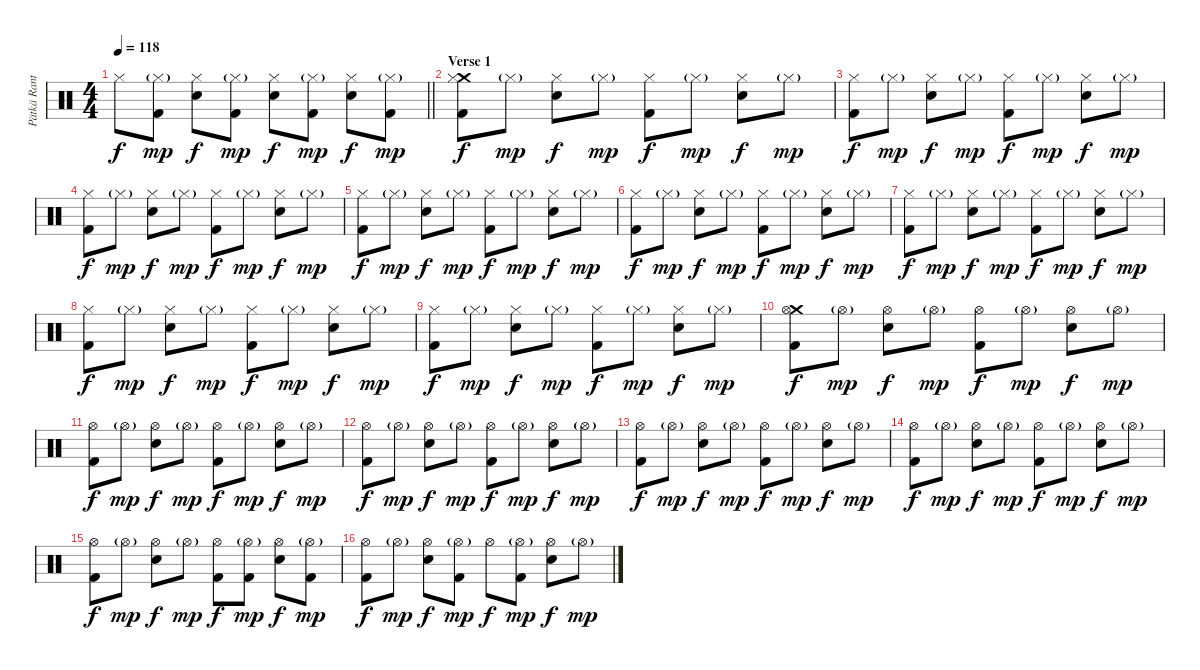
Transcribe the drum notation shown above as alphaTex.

\track ("Pätkä Rantala (Drums)" "Pätkä Rant") {instrument percussion}
\staff {score}
\articulation defaults
\ts (4 4)
\tempo 118
\clef neutral
\barLineRight lightlight
\ks c "Hi-Hat (closed)".8{dy f}
("Hi-Hat (closed)"{g} "Kick (hit) 2").8{dy mp} ("Hi-Hat (closed)" "Snare (hit) 2").8{dy f} ("Hi-Hat (closed)"{g} "Kick (hit) 2").8{dy mp} ("Hi-Hat (closed)" "Snare (hit) 2").8{dy f} ("Hi-Hat (closed)"{g} "Kick (hit) 2").8{dy mp} ("Hi-Hat (closed)" "Snare (hit) 2").8{dy f} ("Hi-Hat (closed)"{g} "Kick (hit) 2").8{dy mp} |
\section ("" "Verse 1")
("Crash medium (hit)" "Hi-Hat (closed)" "Kick (hit) 2").8{dy f} "Hi-Hat (closed)"{g}.8{dy mp} ("Hi-Hat (closed)" "Snare (hit) 2").8{dy f} "Hi-Hat (closed)"{g}.8{dy mp} ("Hi-Hat (closed)" "Kick (hit) 2").8{dy f} "Hi-Hat (closed)"{g}.8{dy mp} ("Hi-Hat (closed)" "Snare (hit) 2").8{dy f} "Hi-Hat (closed)"{g}.8{dy mp} |
("Hi-Hat (closed)" "Kick (hit) 2").8{dy f} "Hi-Hat (closed)"{g}.8{dy mp} ("Hi-Hat (closed)" "Snare (hit) 2").8{dy f} "Hi-Hat (closed)"{g}.8{dy mp} ("Hi-Hat (closed)" "Kick (hit) 2").8{dy f} "Hi-Hat (closed)"{g}.8{dy mp} ("Hi-Hat (closed)" "Snare (hit) 2").8{dy f} "Hi-Hat (closed)"{g}.8{dy mp} |
("Hi-Hat (closed)" "Kick (hit) 2").8{dy f} "Hi-Hat (closed)"{g}.8{dy mp} ("Hi-Hat (closed)" "Snare (hit) 2").8{dy f} "Hi-Hat (closed)"{g}.8{dy mp} ("Hi-Hat (closed)" "Kick (hit) 2").8{dy f} "Hi-Hat (closed)"{g}.8{dy mp} ("Hi-Hat (closed)" "Snare (hit) 2").8{dy f} "Hi-Hat (closed)"{g}.8{dy mp} |
("Hi-Hat (closed)" "Kick (hit) 2").8{dy f} "Hi-Hat (closed)"{g}.8{dy mp} ("Hi-Hat (closed)" "Snare (hit) 2").8{dy f} "Hi-Hat (closed)"{g}.8{dy mp} ("Hi-Hat (closed)" "Kick (hit) 2").8{dy f} "Hi-Hat (closed)"{g}.8{dy mp} ("Hi-Hat (closed)" "Snare (hit) 2").8{dy f} "Hi-Hat (closed)"{g}.8{dy mp} |
("Hi-Hat (closed)" "Kick (hit) 2").8{dy f} "Hi-Hat (closed)"{g}.8{dy mp} ("Hi-Hat (closed)" "Snare (hit) 2").8{dy f} "Hi-Hat (closed)"{g}.8{dy mp} ("Hi-Hat (closed)" "Kick (hit) 2").8{dy f} "Hi-Hat (closed)"{g}.8{dy mp} ("Hi-Hat (closed)" "Snare (hit) 2").8{dy f} "Hi-Hat (closed)"{g}.8{dy mp} |
("Hi-Hat (closed)" "Kick (hit) 2").8{dy f} "Hi-Hat (closed)"{g}.8{dy mp} ("Hi-Hat (closed)" "Snare (hit) 2").8{dy f} "Hi-Hat (closed)"{g}.8{dy mp} ("Hi-Hat (closed)" "Kick (hit) 2").8{dy f} "Hi-Hat (closed)"{g}.8{dy mp} ("Hi-Hat (closed)" "Snare (hit) 2").8{dy f} "Hi-Hat (closed)"{g}.8{dy mp} |
("Hi-Hat (closed)" "Kick (hit) 2").8{dy f} "Hi-Hat (closed)"{g}.8{dy mp} ("Hi-Hat (closed)" "Snare (hit) 2").8{dy f} "Hi-Hat (closed)"{g}.8{dy mp} ("Hi-Hat (closed)" "Kick (hit) 2").8{dy f} "Hi-Hat (closed)"{g}.8{dy mp} ("Hi-Hat (closed)" "Snare (hit) 2").8{dy f} "Hi-Hat (closed)"{g}.8{dy mp} |
("Hi-Hat (closed)" "Kick (hit) 2").8{dy f} "Hi-Hat (closed)"{g}.8{dy mp} ("Hi-Hat (closed)" "Snare (hit) 2").8{dy f} "Hi-Hat (closed)"{g}.8{dy mp} ("Hi-Hat (closed)" "Kick (hit) 2").8{dy f} "Hi-Hat (closed)"{g}.8{dy mp} ("Hi-Hat (closed)" "Snare (hit) 2").8{dy f} "Hi-Hat (closed)"{g}.8{dy mp} |
("Crash medium (hit)" "Hi-Hat (open)" "Kick (hit) 2").8{dy f} "Hi-Hat (open)"{g}.8{dy mp} ("Hi-Hat (open)" "Snare (hit) 2").8{dy f} "Hi-Hat (open)"{g}.8{dy mp} ("Hi-Hat (open)" "Kick (hit) 2").8{dy f} "Hi-Hat (open)"{g}.8{dy mp} ("Hi-Hat (open)" "Snare (hit) 2").8{dy f} "Hi-Hat (open)"{g}.8{dy mp} |
("Hi-Hat (open)" "Kick (hit) 2").8{dy f} "Hi-Hat (open)"{g}.8{dy mp} ("Hi-Hat (open)" "Snare (hit) 2").8{dy f} "Hi-Hat (open)"{g}.8{dy mp} ("Hi-Hat (open)" "Kick (hit) 2").8{dy f} "Hi-Hat (open)"{g}.8{dy mp} ("Hi-Hat (open)" "Snare (hit) 2").8{dy f} "Hi-Hat (open)"{g}.8{dy mp} |
("Hi-Hat (open)" "Kick (hit) 2").8{dy f} "Hi-Hat (open)"{g}.8{dy mp} ("Hi-Hat (open)" "Snare (hit) 2").8{dy f} "Hi-Hat (open)"{g}.8{dy mp} ("Hi-Hat (open)" "Kick (hit) 2").8{dy f} "Hi-Hat (open)"{g}.8{dy mp} ("Hi-Hat (open)" "Snare (hit) 2").8{dy f} "Hi-Hat (open)"{g}.8{dy mp} |
("Hi-Hat (open)" "Kick (hit) 2").8{dy f} "Hi-Hat (open)"{g}.8{dy mp} ("Hi-Hat (open)" "Snare (hit) 2").8{dy f} "Hi-Hat (open)"{g}.8{dy mp} ("Hi-Hat (open)" "Kick (hit) 2").8{dy f} "Hi-Hat (open)"{g}.8{dy mp} ("Hi-Hat (open)" "Snare (hit) 2").8{dy f} "Hi-Hat (open)"{g}.8{dy mp} |
("Hi-Hat (open)" "Kick (hit) 2").8{dy f} "Hi-Hat (open)"{g}.8{dy mp} ("Hi-Hat (open)" "Snare (hit) 2").8{dy f} "Hi-Hat (open)"{g}.8{dy mp} ("Hi-Hat (open)" "Kick (hit) 2").8{dy f} "Hi-Hat (open)"{g}.8{dy mp} ("Hi-Hat (open)" "Snare (hit) 2").8{dy f} "Hi-Hat (open)"{g}.8{dy mp} |
("Hi-Hat (open)" "Kick (hit) 2").8{dy f} "Hi-Hat (open)"{g}.8{dy mp} ("Hi-Hat (open)" "Snare (hit) 2").8{dy f} "Hi-Hat (open)"{g}.8{dy mp} ("Hi-Hat (open)" "Kick (hit) 2").8{dy f} ("Hi-Hat (open)"{g} "Kick (hit) 2").8{dy mp} ("Hi-Hat (open)" "Snare (hit) 2").8{dy f} ("Hi-Hat (open)"{g} "Kick (hit) 2").8{dy mp} |
("Hi-Hat (open)" "Kick (hit) 2").8{dy f} "Hi-Hat (open)"{g}.8{dy mp} ("Hi-Hat (open)" "Snare (hit) 2").8{dy f} ("Hi-Hat (open)"{g} "Kick (hit) 2").8{dy mp} "Hi-Hat (open)".8{dy f} ("Hi-Hat (open)"{g} "Kick (hit) 2").8{dy mp} ("Hi-Hat (open)" "Snare (hit) 2").8{dy f} "Hi-Hat (open)"{g}.8{dy mp}
